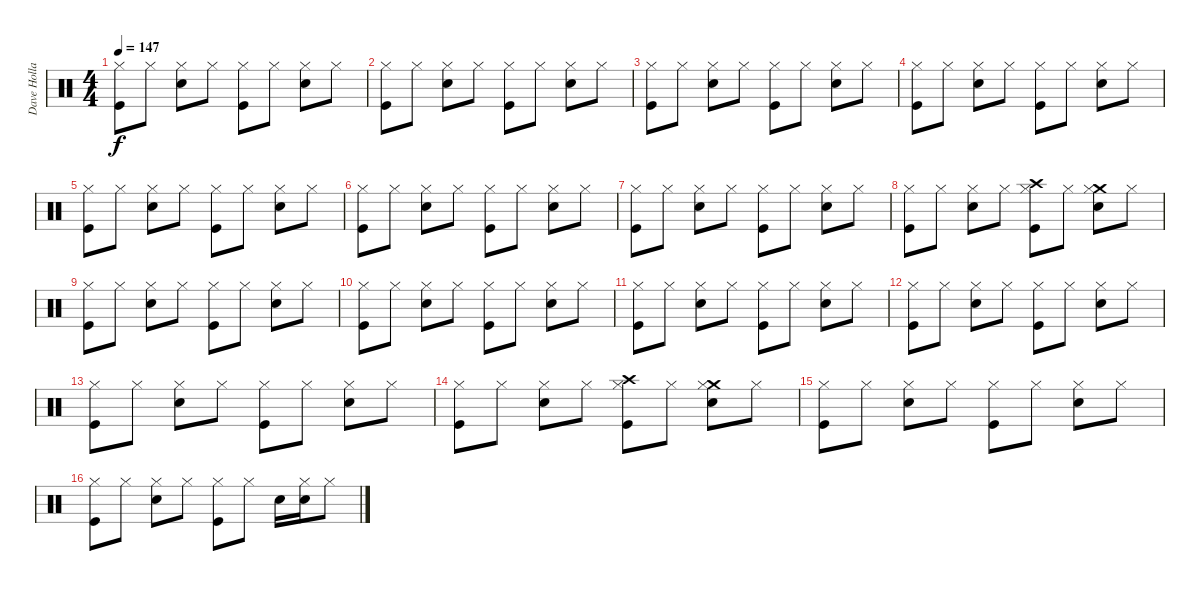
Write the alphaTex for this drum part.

\track ("Dave Holland" "Dave Holla") {instrument percussion}
\staff {score}
\articulation defaults
\ts (4 4)
\tempo 147
\clef neutral
\ks c
("Kick (hit)" "Hi-Hat (closed)").8{dy f} "Hi-Hat (closed)".8 ("Electric Snare (hit)" "Hi-Hat (closed)").8 "Hi-Hat (closed)".8 ("Kick (hit)" "Hi-Hat (closed)").8 "Hi-Hat (closed)".8 ("Electric Snare (hit)" "Hi-Hat (closed)").8 "Hi-Hat (closed)".8 |
("Kick (hit)" "Hi-Hat (closed)").8 "Hi-Hat (closed)".8 ("Electric Snare (hit)" "Hi-Hat (closed)").8 "Hi-Hat (closed)".8 ("Kick (hit)" "Hi-Hat (closed)").8 "Hi-Hat (closed)".8 ("Electric Snare (hit)" "Hi-Hat (closed)").8 "Hi-Hat (closed)".8 |
("Kick (hit)" "Hi-Hat (closed)").8 "Hi-Hat (closed)".8 ("Electric Snare (hit)" "Hi-Hat (closed)").8 "Hi-Hat (closed)".8 ("Kick (hit)" "Hi-Hat (closed)").8 "Hi-Hat (closed)".8 ("Electric Snare (hit)" "Hi-Hat (closed)").8 "Hi-Hat (closed)".8 |
("Kick (hit)" "Hi-Hat (closed)").8 "Hi-Hat (closed)".8 ("Electric Snare (hit)" "Hi-Hat (closed)").8 "Hi-Hat (closed)".8 ("Kick (hit)" "Hi-Hat (closed)").8 "Hi-Hat (closed)".8 ("Electric Snare (hit)" "Hi-Hat (closed)").8 "Hi-Hat (closed)".8 |
("Kick (hit)" "Hi-Hat (closed)").8 "Hi-Hat (closed)".8 ("Electric Snare (hit)" "Hi-Hat (closed)").8 "Hi-Hat (closed)".8 ("Kick (hit)" "Hi-Hat (closed)").8 "Hi-Hat (closed)".8 ("Electric Snare (hit)" "Hi-Hat (closed)").8 "Hi-Hat (closed)".8 |
("Kick (hit)" "Hi-Hat (closed)").8 "Hi-Hat (closed)".8 ("Electric Snare (hit)" "Hi-Hat (closed)").8 "Hi-Hat (closed)".8 ("Kick (hit)" "Hi-Hat (closed)").8 "Hi-Hat (closed)".8 ("Electric Snare (hit)" "Hi-Hat (closed)").8 "Hi-Hat (closed)".8 |
("Kick (hit)" "Hi-Hat (closed)").8 "Hi-Hat (closed)".8 ("Electric Snare (hit)" "Hi-Hat (closed)").8 "Hi-Hat (closed)".8 ("Kick (hit)" "Hi-Hat (closed)").8 "Hi-Hat (closed)".8 ("Electric Snare (hit)" "Hi-Hat (closed)").8 "Hi-Hat (closed)".8 |
("Kick (hit)" "Hi-Hat (closed)").8 "Hi-Hat (closed)".8 ("Electric Snare (hit)" "Hi-Hat (closed)").8 "Hi-Hat (closed)".8 ("Kick (hit)" "Crash high (hit)" "Hi-Hat (closed)").8 "Hi-Hat (closed)".8 ("Electric Snare (hit)" "Crash medium (hit)" "Hi-Hat (closed)").8 "Hi-Hat (closed)".8 |
("Kick (hit)" "Hi-Hat (closed)").8 "Hi-Hat (closed)".8 ("Electric Snare (hit)" "Hi-Hat (closed)").8 "Hi-Hat (closed)".8 ("Kick (hit)" "Hi-Hat (closed)").8 "Hi-Hat (closed)".8 ("Electric Snare (hit)" "Hi-Hat (closed)").8 "Hi-Hat (closed)".8 |
("Kick (hit)" "Hi-Hat (closed)").8 "Hi-Hat (closed)".8 ("Electric Snare (hit)" "Hi-Hat (closed)").8 "Hi-Hat (closed)".8 ("Kick (hit)" "Hi-Hat (closed)").8 "Hi-Hat (closed)".8 ("Electric Snare (hit)" "Hi-Hat (closed)").8 "Hi-Hat (closed)".8 |
("Kick (hit)" "Hi-Hat (closed)").8 "Hi-Hat (closed)".8 ("Electric Snare (hit)" "Hi-Hat (closed)").8 "Hi-Hat (closed)".8 ("Kick (hit)" "Hi-Hat (closed)").8 "Hi-Hat (closed)".8 ("Electric Snare (hit)" "Hi-Hat (closed)").8 "Hi-Hat (closed)".8 |
("Kick (hit)" "Hi-Hat (closed)").8 "Hi-Hat (closed)".8 ("Electric Snare (hit)" "Hi-Hat (closed)").8 "Hi-Hat (closed)".8 ("Kick (hit)" "Hi-Hat (closed)").8 "Hi-Hat (closed)".8 ("Electric Snare (hit)" "Hi-Hat (closed)").8 "Hi-Hat (closed)".8 |
("Kick (hit)" "Hi-Hat (closed)").8 "Hi-Hat (closed)".8 ("Electric Snare (hit)" "Hi-Hat (closed)").8 "Hi-Hat (closed)".8 ("Kick (hit)" "Hi-Hat (closed)").8 "Hi-Hat (closed)".8 ("Electric Snare (hit)" "Hi-Hat (closed)").8 "Hi-Hat (closed)".8 |
("Kick (hit)" "Hi-Hat (closed)").8 "Hi-Hat (closed)".8 ("Electric Snare (hit)" "Hi-Hat (closed)").8 "Hi-Hat (closed)".8 ("Kick (hit)" "Crash high (hit)" "Hi-Hat (closed)").8 "Hi-Hat (closed)".8 ("Electric Snare (hit)" "Crash medium (hit)" "Hi-Hat (closed)").8 "Hi-Hat (closed)".8 |
("Kick (hit)" "Hi-Hat (closed)").8 "Hi-Hat (closed)".8 ("Electric Snare (hit)" "Hi-Hat (closed)").8 "Hi-Hat (closed)".8 ("Kick (hit)" "Hi-Hat (closed)").8 "Hi-Hat (closed)".8 ("Electric Snare (hit)" "Hi-Hat (closed)").8 "Hi-Hat (closed)".8 |
("Kick (hit)" "Hi-Hat (closed)").8 "Hi-Hat (closed)".8 ("Electric Snare (hit)" "Hi-Hat (closed)").8 "Hi-Hat (closed)".8 ("Kick (hit)" "Hi-Hat (closed)").8 "Hi-Hat (closed)".8 "Electric Snare (hit)".16 ("Electric Snare (hit)" "Hi-Hat (closed)").16 "Hi-Hat (closed)".8
